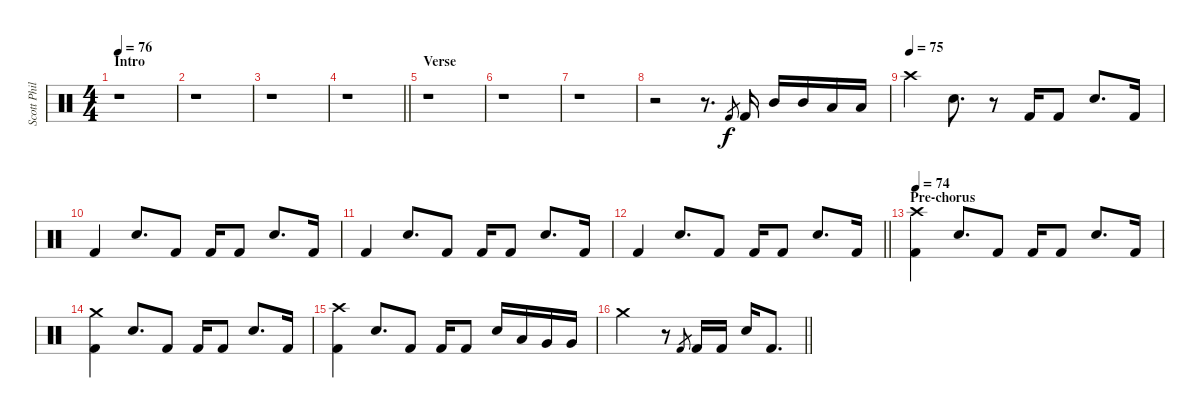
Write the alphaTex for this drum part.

\track ("Scott Phillips (Drums)" "Scott Phil") {instrument percussion}
\staff {score}
\articulation defaults
\ts (4 4)
\section ("" "Intro")
\tempo 76
\clef neutral
\ks c
r.1{dy f} |
r.1 |
r.1 |
\barLineRight lightlight
r.1 |
\section ("" "Verse")
r.1 |
r.1 |
r.1 |
r.2 r.8{d} "Kick (hit) 2".8{gr} "Kick (hit) 2".16 "Mid Tom (hit)".16 "Mid Tom (hit)".16 "Low Tom (hit)".16 "Low Tom (hit)".16 |
\tempo (75)
"Crash high (hit)".4 "Electric Snare (hit)".8{d} r.8 "Kick (hit) 2".16 "Kick (hit) 2".8 "Electric Snare (hit)".8{d} "Kick (hit) 2".16 |
"Kick (hit) 2".4 "Electric Snare (hit)".8{d} "Kick (hit) 2".8 "Kick (hit) 2".16 "Kick (hit) 2".8 "Electric Snare (hit)".8{d} "Kick (hit) 2".16 |
"Kick (hit) 2".4 "Electric Snare (hit)".8{d} "Kick (hit) 2".8 "Kick (hit) 2".16 "Kick (hit) 2".8 "Electric Snare (hit)".8{d} "Kick (hit) 2".16 |
\barLineRight lightlight "Kick (hit) 2".4 "Electric Snare (hit)".8{d} "Kick (hit) 2".8 "Kick (hit) 2".16 "Kick (hit) 2".8 "Electric Snare (hit)".8{d} "Kick (hit) 2".16
|
\section ("" "Pre-chorus")
\tempo 74
("Crash high (hit)" "Kick (hit) 2").4 "Electric Snare (hit)".8{d} "Kick (hit) 2".8 "Kick (hit) 2".16 "Kick (hit) 2".8 "Electric Snare (hit)".8{d} "Kick (hit) 2".16 |
("Crash medium (hit)" "Kick (hit) 2").4 "Electric Snare (hit)".8{d} "Kick (hit) 2".8 "Kick (hit) 2".16 "Kick (hit) 2".8 "Electric Snare (hit)".8{d} "Kick (hit) 2".16 |
("Crash high (hit)" "Kick (hit) 2").4 "Electric Snare (hit)".8{d} "Kick (hit) 2".8 "Kick (hit) 2".16 "Kick (hit) 2".8 "Electric Snare (hit)".16 "Low Floor Tom (hit)".16 "Very Low Tom (hit)".16 "Very Low Tom (hit)".16 |
\barLineRight lightlight "Crash medium (hit)".2
r.8 "Kick (hit) 2".8{gr} "Kick (hit) 2".16 "Kick (hit) 2".16 "Electric Snare (hit)".16 "Kick (hit) 2".8{d}
